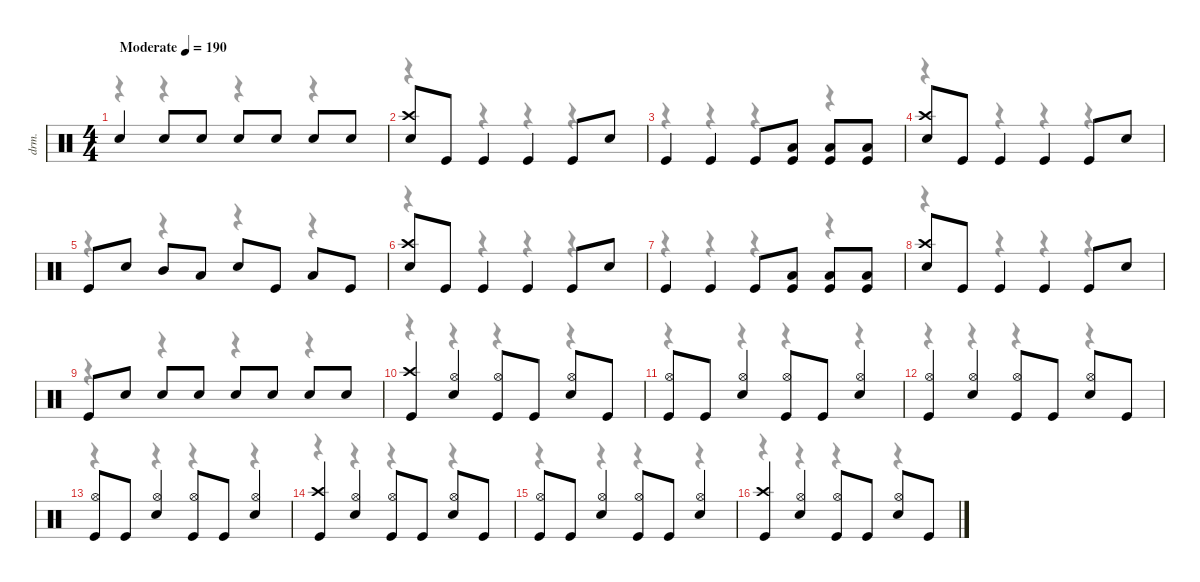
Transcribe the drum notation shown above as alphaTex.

\defaultSystemsLayout 4
\hideDynamics
\bracketExtendMode nobrackets
\track ("Drums" "drm.") {instrument percussion}
\staff {score}
\articulation defaults
\voice
\ts (4 4)
\beaming (8 2 2 2 2)
\tempo (190 "Moderate")
\clef neutral
\ks c "Snare (hit) 2".4{dy f beam Up} "Snare (hit) 2".8{beam Up} "Snare (hit) 2".8{beam Up} "Snare (hit) 2".8{beam Up} "Snare (hit) 2".8{beam Up} "Snare (hit) 2".8{beam Up} "Snare (hit) 2".8{beam Up}
|
("Crash high (hit)" "Snare (hit) 2").8{beam Up} "Kick (hit)".8{beam Up} "Kick (hit)".4{beam Up} "Kick (hit)".4{beam Up} "Kick (hit)".8{beam Up} "Snare (hit) 2".8{beam Up} |
"Kick (hit)".4{beam Up} "Kick (hit)".4{beam Up} "Kick (hit)".8{beam Up} ("Low Tom (hit)" "Kick (hit)").8{beam Up} ("Low Tom (hit)" "Kick (hit)").8{beam Up} ("Low Tom (hit)" "Kick (hit)").8{beam Up} |
("Crash high (hit)" "Snare (hit) 2").8{beam Up} "Kick (hit)".8{beam Up} "Kick (hit)".4{beam Up} "Kick (hit)".4{beam Up} "Kick (hit)".8{beam Up} "Snare (hit) 2".8{beam Up} |
"Kick (hit)".8{beam Up} "Snare (hit) 2".8{beam Up} "Mid Tom (hit)".8{beam Up} "Low Tom (hit)".8{beam Up} "Snare (hit) 2".8{beam Up} "Kick (hit)".8{beam Up} "Low Tom (hit)".8{beam Up} "Kick (hit)".8{beam Up} |
("Crash high (hit)" "Snare (hit) 2").8{beam Up} "Kick (hit)".8{beam Up} "Kick (hit)".4{beam Up} "Kick (hit)".4{beam Up} "Kick (hit)".8{beam Up} "Snare (hit) 2".8{beam Up} |
"Kick (hit)".4{beam Up} "Kick (hit)".4{beam Up} "Kick (hit)".8{beam Up} ("Low Tom (hit)" "Kick (hit)").8{beam Up} ("Low Tom (hit)" "Kick (hit)").8{beam Up} ("Low Tom (hit)" "Kick (hit)").8{beam Up} |
("Crash high (hit)" "Snare (hit) 2").8{beam Up} "Kick (hit)".8{beam Up} "Kick (hit)".4{beam Up} "Kick (hit)".4{beam Up} "Kick (hit)".8{beam Up} "Snare (hit) 2".8{beam Up} |
"Kick (hit)".8{beam Up} "Snare (hit) 2".8{beam Up} "Snare (hit) 2".8{beam Up} "Snare (hit) 2".8{beam Up} "Snare (hit) 2".8{beam Up} "Snare (hit) 2".8{beam Up} "Snare (hit) 2".8{beam Up} "Snare (hit) 2".8{beam Up} |
("Crash high (hit)" "Kick (hit)").4{beam Up} ("Hi-Hat (open)" "Snare (hit) 2").4{beam Up} ("Hi-Hat (open)" "Kick (hit)").8{beam Up} "Kick (hit)".8{beam Up} ("Hi-Hat (open)" "Snare (hit) 2").8{beam Up} "Kick (hit)".8{beam Up} |
("Hi-Hat (open)" "Kick (hit)").8{beam Up} "Kick (hit)".8{beam Up} ("Hi-Hat (open)" "Snare (hit) 2").4{beam Up} ("Hi-Hat (open)" "Kick (hit)").8{beam Up} "Kick (hit)".8{beam Up} ("Hi-Hat (open)" "Snare (hit) 2").4{beam Up} |
("Hi-Hat (open)" "Kick (hit)").4{beam Up} ("Hi-Hat (open)" "Snare (hit) 2").4{beam Up} ("Hi-Hat (open)" "Kick (hit)").8{beam Up} "Kick (hit)".8{beam Up} ("Hi-Hat (open)" "Snare (hit) 2").8{beam Up} "Kick (hit)".8{beam Up} |
("Hi-Hat (open)" "Kick (hit)").8{beam Up} "Kick (hit)".8{beam Up} ("Hi-Hat (open)" "Snare (hit) 2").4{beam Up} ("Hi-Hat (open)" "Kick (hit)").8{beam Up} "Kick (hit)".8{beam Up} ("Hi-Hat (open)" "Snare (hit) 2").4{beam Up} |
("Crash high (hit)" "Kick (hit)").4{beam Up} ("Hi-Hat (open)" "Snare (hit) 2").4{beam Up} ("Hi-Hat (open)" "Kick (hit)").8{beam Up} "Kick (hit)".8{beam Up} ("Hi-Hat (open)" "Snare (hit) 2").8{beam Up} "Kick (hit)".8{beam Up} |
("Hi-Hat (open)" "Kick (hit)").8{beam Up} "Kick (hit)".8{beam Up} ("Hi-Hat (open)" "Snare (hit) 2").4{beam Up} ("Hi-Hat (open)" "Kick (hit)").8{beam Up} "Kick (hit)".8{beam Up} ("Hi-Hat (open)" "Snare (hit) 2").4{beam Up} |
("Crash high (hit)" "Kick (hit)").4{beam Up} ("Hi-Hat (open)" "Snare (hit) 2").4{beam Up} ("Hi-Hat (open)" "Kick (hit)").8{beam Up} "Kick (hit)".8{beam Up} ("Hi-Hat (open)" "Snare (hit) 2").8{beam Up} "Kick (hit)".8{beam Up}
\voice
\clef neutral
\ottava regular
\simile none
\ks c
r.4{dy mf beam Down} r.4{beam Down} r.4{beam Down} r.4{beam Down} |
r.4{beam Down} r.4{beam Down} r.4{beam Down} r.4{beam Down} |
r.4{beam Down} r.4{beam Down} r.4{beam Down} r.4{beam Down} |
r.4{beam Down} r.4{beam Down} r.4{beam Down} r.4{beam Down} |
r.4{beam Down} r.4{beam Down} r.4{beam Down} r.4{beam Down} |
r.4{beam Down} r.4{beam Down} r.4{beam Down} r.4{beam Down} |
r.4{beam Down} r.4{beam Down} r.4{beam Down} r.4{beam Down} |
r.4{beam Down} r.4{beam Down} r.4{beam Down} r.4{beam Down} |
r.4{beam Down} r.4{beam Down} r.4{beam Down} r.4{beam Down} |
r.4{beam Down} r.4{beam Down} r.4{beam Down} r.4{beam Down} |
r.4{beam Down} r.4{beam Down} r.4{beam Down} r.4{beam Down} |
r.4{beam Down} r.4{beam Down} r.4{beam Down} r.4{beam Down} |
r.4{beam Down} r.4{beam Down} r.4{beam Down} r.4{beam Down} |
r.4{beam Down} r.4{beam Down} r.4{beam Down} r.4{beam Down} |
r.4{beam Down} r.4{beam Down} r.4{beam Down} r.4{beam Down} |
r.4{beam Down} r.4{beam Down} r.4{beam Down} r.4{beam Down}
